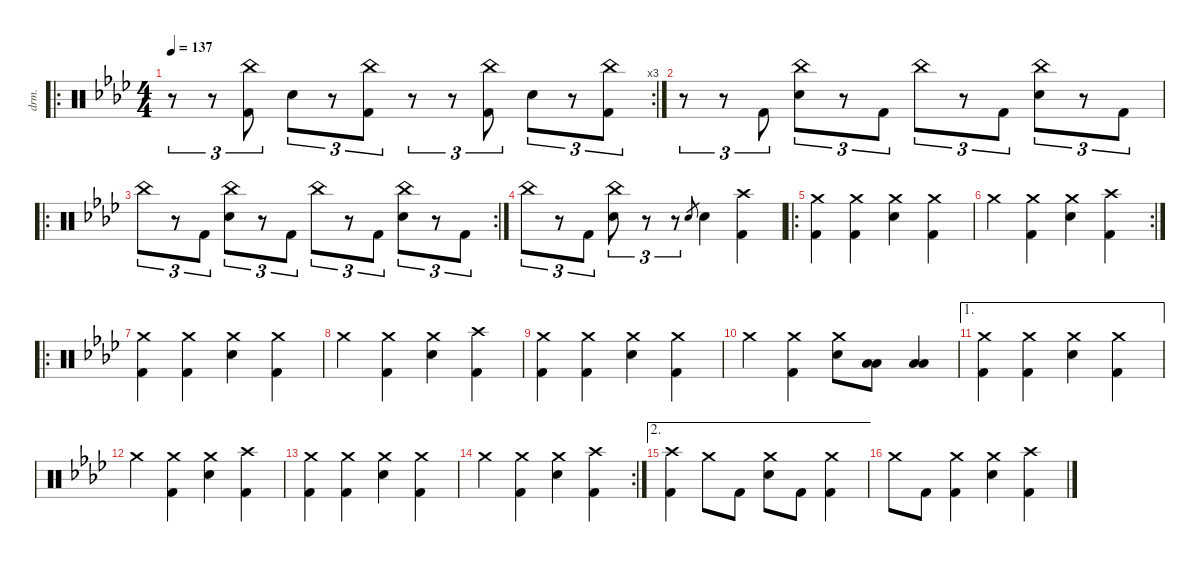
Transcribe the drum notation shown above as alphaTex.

\defaultSystemsLayout 4
\hideDynamics
\bracketExtendMode nobrackets
\otherSystemsTrackNameOrientation horizontal
\track ("Drums" "drm.") {defaultSystemsLayout 4 instrument percussion}
\staff {score}
\articulation defaults
\ro
\rc 3
\ts (4 4)
\tempo 137
\clef neutral
\ks ab
r.8{tu (3 2) dy f beam Down} r.8{tu (3 2) beam Down} ("China (hit)"{acc forcenatural} "Kick (hit) 2"{acc forcenatural}).8{tu (3 2) beam Down} "Snare (hit) 2"{acc forcenatural}.8{tu (3 2) beam Down} r.8{tu (3 2) beam Down} ("China (hit)"{acc forcenatural} "Kick (hit) 2"{acc forcenatural}).8{tu (3 2) beam Down} r.8{tu (3 2) beam Down} r.8{tu (3 2) beam Down} ("China (hit)"{acc forcenatural} "Kick (hit) 2"{acc forcenatural}).8{tu (3 2) beam Down} "Snare (hit) 2"{acc forcenatural}.8{tu (3 2) beam Down} r.8{tu (3 2) beam Down} ("China (hit)"{acc forcenatural} "Kick (hit) 2"{acc forcenatural}).8{tu (3 2) beam Down} |
r.8{tu (3 2) beam Down} r.8{tu (3 2) beam Down} "Kick (hit) 2"{acc forcenatural}.8{tu (3 2) beam Up} ("China (hit)"{acc forcenatural} "Snare (hit) 2"{acc forcenatural}).8{tu (3 2) beam Down} r.8{tu (3 2) beam Down} "Kick (hit) 2"{acc forcenatural}.8{tu (3 2) beam Down} "China (hit)"{acc forcenatural}.8{tu (3 2) beam Down} r.8{tu (3 2) beam Down} "Kick (hit) 2"{acc forcenatural}.8{tu (3 2) beam Down} ("China (hit)"{acc forcenatural} "Snare (hit) 2"{acc forcenatural}).8{tu (3 2) beam Down} r.8{tu (3 2) beam Down} "Kick (hit) 2"{acc forcenatural}.8{tu (3 2) beam Down} |
\ro
\rc 2 "China (hit)"{acc forcenatural}.8{tu (3 2) beam Down}
r.8{tu (3 2) beam Down} "Kick (hit) 2"{acc forcenatural}.8{tu (3 2) beam Down} ("China (hit)"{acc forcenatural} "Snare (hit) 2"{acc forcenatural}).8{tu (3 2) beam Down} r.8{tu (3 2) beam Down} "Kick (hit) 2"{acc forcenatural}.8{tu (3 2) beam Down} "China (hit)"{acc forcenatural}.8{tu (3 2) beam Down} r.8{tu (3 2) beam Down} "Kick (hit) 2"{acc forcenatural}.8{tu (3 2) beam Down} ("China (hit)"{acc forcenatural} "Snare (hit) 2"{acc forcenatural}).8{tu (3 2) beam Down} r.8{tu (3 2) beam Down} "Kick (hit) 2"{acc forcenatural}.8{tu (3 2) beam Down} |
"China (hit)"{acc forcenatural}.8{tu (3 2) beam Down} r.8{tu (3 2) beam Down} "Kick (hit) 2"{acc forcenatural}.8{tu (3 2) beam Down} ("China (hit)"{acc forcenatural} "Snare (hit) 2"{acc forcenatural}).8{tu (3 2) beam Down} r.8{tu (3 2) beam Down} r.8{tu (3 2) beam Down} "Electric Snare (hit)"{acc forcenatural}.8{gr dy mf beam Up} "Snare (hit) 2"{acc forcenatural}.4{dy f beam Down} ("Crash high (hit)"{acc forcenatural} "Kick (hit) 2"{acc forcenatural}).4{beam Down} |
\ro
("Crash medium (hit)"{acc forcenatural} "Kick (hit) 2"{acc forcenatural}).4{beam Down} ("Crash medium (hit)"{acc forcenatural} "Kick (hit) 2"{acc forcenatural}).4{beam Down} ("Crash medium (hit)"{acc forcenatural} "Snare (hit) 2"{acc forcenatural}).4{beam Down} ("Crash medium (hit)"{acc forcenatural} "Kick (hit) 2"{acc forcenatural}).4{beam Down} |
\rc 2 "Crash medium (hit)"{acc forcenatural}.4{beam Down}
("Crash medium (hit)"{acc forcenatural} "Kick (hit) 2"{acc forcenatural}).4{beam Down} ("Crash medium (hit)"{acc forcenatural} "Snare (hit) 2"{acc forcenatural}).4{beam Down} ("Crash high (hit)"{acc forcenatural} "Kick (hit) 2"{acc forcenatural}).4{beam Down} |
\ro
("Crash medium (hit)"{acc forcenatural} "Kick (hit) 2"{acc forcenatural}).4{beam Down} ("Crash medium (hit)"{acc forcenatural} "Kick (hit) 2"{acc forcenatural}).4{beam Down} ("Crash medium (hit)"{acc forcenatural} "Snare (hit) 2"{acc forcenatural}).4{beam Down} ("Crash medium (hit)"{acc forcenatural} "Kick (hit) 2"{acc forcenatural}).4{beam Down} |
"Crash medium (hit)"{acc forcenatural}.4{beam Down} ("Crash medium (hit)"{acc forcenatural} "Kick (hit) 2"{acc forcenatural}).4{beam Down} ("Crash medium (hit)"{acc forcenatural} "Snare (hit) 2"{acc forcenatural}).4{beam Down} ("Crash high (hit)"{acc forcenatural} "Kick (hit) 2"{acc forcenatural}).4{beam Down} |
("Crash medium (hit)"{acc forcenatural} "Kick (hit) 2"{acc forcenatural}).4{beam Down} ("Crash medium (hit)"{acc forcenatural} "Kick (hit) 2"{acc forcenatural}).4{beam Down} ("Crash medium (hit)"{acc forcenatural} "Snare (hit) 2"{acc forcenatural}).4{beam Down} ("Crash medium (hit)"{acc forcenatural} "Kick (hit) 2"{acc forcenatural}).4{beam Down} |
"Crash medium (hit)"{acc forcenatural}.4{beam Down} ("Crash medium (hit)"{acc forcenatural} "Kick (hit) 2"{acc forcenatural}).4{beam Down} ("Crash medium (hit)"{acc forcenatural} "Snare (hit) 2"{acc forcenatural}).8{beam Down} ("Low Tom (hit)"{acc forcenatural} "Low Tom (hit)"{acc forcenatural}).8{beam Down} ("Low Tom (hit)"{acc forcenatural} "Low Tom (hit)"{acc forcenatural}).4{beam Up} |
\ae 1
("Crash medium (hit)"{acc forcenatural} "Kick (hit) 2"{acc forcenatural}).4{beam Down} ("Crash medium (hit)"{acc forcenatural} "Kick (hit) 2"{acc forcenatural}).4{beam Down} ("Crash medium (hit)"{acc forcenatural} "Snare (hit) 2"{acc forcenatural}).4{beam Down} ("Crash medium (hit)"{acc forcenatural} "Kick (hit) 2"{acc forcenatural}).4{beam Down} |
"Crash medium (hit)"{acc forcenatural}.4{beam Down} ("Crash medium (hit)"{acc forcenatural} "Kick (hit) 2"{acc forcenatural}).4{beam Down} ("Crash medium (hit)"{acc forcenatural} "Snare (hit) 2"{acc forcenatural}).4{beam Down} ("Crash high (hit)"{acc forcenatural} "Kick (hit) 2"{acc forcenatural}).4{beam Down} |
("Crash medium (hit)"{acc forcenatural} "Kick (hit) 2"{acc forcenatural}).4{beam Down} ("Crash medium (hit)"{acc forcenatural} "Kick (hit) 2"{acc forcenatural}).4{beam Down} ("Crash medium (hit)"{acc forcenatural} "Snare (hit) 2"{acc forcenatural}).4{beam Down} ("Crash medium (hit)"{acc forcenatural} "Kick (hit) 2"{acc forcenatural}).4{beam Down} |
\rc 2 "Crash medium (hit)"{acc forcenatural}.4{beam Down}
("Crash medium (hit)"{acc forcenatural} "Kick (hit) 2"{acc forcenatural}).4{beam Down} ("Crash medium (hit)"{acc forcenatural} "Snare (hit) 2"{acc forcenatural}).4{beam Down} ("Crash high (hit)"{acc forcenatural} "Kick (hit) 2"{acc forcenatural}).4{beam Down} |
\ae 2
("Crash high (hit)"{acc forcenatural} "Kick (hit) 2"{acc forcenatural}).4{beam Down} "Crash medium (hit)"{acc forcenatural}.8{beam Down} "Kick (hit) 2"{acc forcenatural}.8{beam Down} ("Crash medium (hit)"{acc forcenatural} "Snare (hit) 2"{acc forcenatural}).8{beam Down} "Kick (hit) 2"{acc forcenatural}.8{beam Down} ("Crash medium (hit)"{acc forcenatural} "Kick (hit) 2"{acc forcenatural}).4{beam Down} |
"Crash medium (hit)"{acc forcenatural}.8{beam Down} "Kick (hit) 2"{acc forcenatural}.8{beam Down} ("Crash medium (hit)"{acc forcenatural} "Kick (hit) 2"{acc forcenatural}).4{beam Down} ("Crash medium (hit)"{acc forcenatural} "Snare (hit) 2"{acc forcenatural}).4{beam Down} ("Crash high (hit)"{acc forcenatural} "Kick (hit) 2"{acc forcenatural}).4{beam Down}
